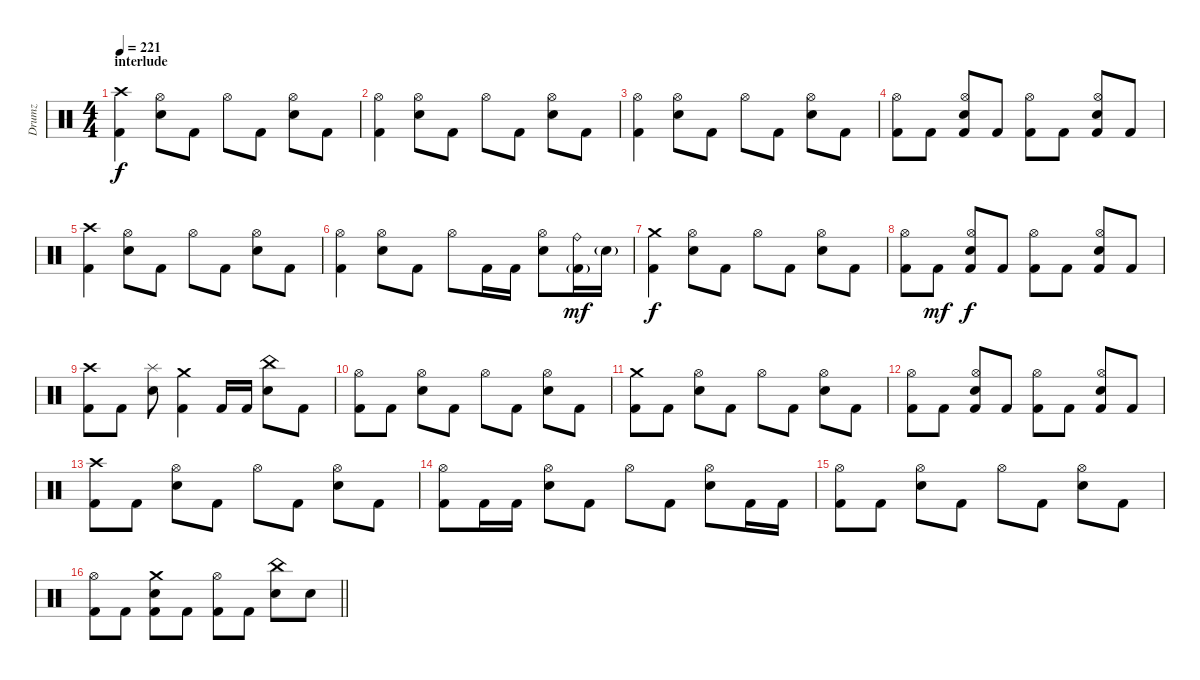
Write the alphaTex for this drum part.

\track ("Drumz" "Drumz") {instrument percussion}
\staff {score}
\articulation defaults
\ts (4 4)
\section ("" "interlude")
\tempo 221
\clef neutral
\ks c
("Crash high (hit)" "Kick (hit) 2").4{dy f} ("Hi-Hat (open)" "Electric Snare (hit)").8 "Kick (hit) 2".8 "Hi-Hat (open)".8 "Kick (hit) 2".8 ("Hi-Hat (open)" "Electric Snare (hit)").8 "Kick (hit) 2".8 |
("Hi-Hat (open)" "Kick (hit) 2").4 ("Hi-Hat (open)" "Electric Snare (hit)").8 "Kick (hit) 2".8 "Hi-Hat (open)".8 "Kick (hit) 2".8 ("Hi-Hat (open)" "Electric Snare (hit)").8 "Kick (hit) 2".8 |
("Hi-Hat (open)" "Kick (hit) 2").4 ("Hi-Hat (open)" "Electric Snare (hit)").8 "Kick (hit) 2".8 "Hi-Hat (open)".8 "Kick (hit) 2".8 ("Hi-Hat (open)" "Electric Snare (hit)").8 "Kick (hit) 2".8 |
("Hi-Hat (open)" "Kick (hit) 2").8 "Kick (hit) 2".8 ("Hi-Hat (open)" "Electric Snare (hit)" "Kick (hit) 2").8 "Kick (hit) 2".8 ("Hi-Hat (open)" "Kick (hit) 2").8 "Kick (hit) 2".8 ("Hi-Hat (open)" "Electric Snare (hit)" "Kick (hit) 2").8 "Kick (hit) 2".8 |
("Crash high (hit)" "Kick (hit) 2").4 ("Hi-Hat (open)" "Electric Snare (hit)").8 "Kick (hit) 2".8 "Hi-Hat (open)".8 "Kick (hit) 2".8 ("Hi-Hat (open)" "Electric Snare (hit)").8 "Kick (hit) 2".8 |
("Hi-Hat (open)" "Kick (hit) 2").4 ("Hi-Hat (open)" "Electric Snare (hit)").8 "Kick (hit) 2".8 "Hi-Hat (open)".8 "Kick (hit) 2".16 "Kick (hit) 2".16 ("Hi-Hat (open)" "Electric Snare (hit)").8 ("Ride (bell)" "Kick (hit) 2"{g}).16{dy mf} "Electric Snare (hit)"{g}.16 |
("Crash medium (hit)" "Kick (hit) 2").4{dy f} ("Hi-Hat (open)" "Electric Snare (hit)").8 "Kick (hit) 2".8 "Hi-Hat (open)".8 "Kick (hit) 2".8 ("Hi-Hat (open)" "Electric Snare (hit)").8 "Kick (hit) 2".8 |
("Hi-Hat (open)" "Kick (hit) 2").8 "Kick (hit) 2".8{dy mf} ("Hi-Hat (open)" "Electric Snare (hit)" "Kick (hit) 2").8{dy f} "Kick (hit) 2".8 ("Hi-Hat (open)" "Kick (hit) 2").8 "Kick (hit) 2".8 ("Hi-Hat (open)" "Electric Snare (hit)" "Kick (hit) 2").8 "Kick (hit) 2".8 |
("Crash high (hit)" "Kick (hit) 2").8 "Kick (hit) 2".8 ("Splash (hit)" "Electric Snare (hit)").8 ("Crash medium (hit)" "Kick (hit) 2").4 "Kick (hit) 2".16 "Kick (hit) 2".16 ("China (hit)" "Electric Snare (hit)").8 "Kick (hit) 2".8 |
("Hi-Hat (open)" "Kick (hit) 2").8 "Kick (hit) 2".8 ("Hi-Hat (open)" "Electric Snare (hit)").8 "Kick (hit) 2".8 "Hi-Hat (open)".8 "Kick (hit) 2".8 ("Hi-Hat (open)" "Electric Snare (hit)").8 "Kick (hit) 2".8 |
("Crash medium (hit)" "Kick (hit) 2").8 "Kick (hit) 2".8 ("Hi-Hat (open)" "Electric Snare (hit)").8 "Kick (hit) 2".8 "Hi-Hat (open)".8 "Kick (hit) 2".8 ("Hi-Hat (open)" "Electric Snare (hit)").8 "Kick (hit) 2".8 |
("Hi-Hat (open)" "Kick (hit) 2").8 "Kick (hit) 2".8 ("Hi-Hat (open)" "Electric Snare (hit)" "Kick (hit) 2").8 "Kick (hit) 2".8 ("Hi-Hat (open)" "Kick (hit) 2").8 "Kick (hit) 2".8 ("Hi-Hat (open)" "Electric Snare (hit)" "Kick (hit) 2").8 "Kick (hit) 2".8 |
("Crash high (hit)" "Kick (hit) 2").8 "Kick (hit) 2".8 ("Hi-Hat (open)" "Electric Snare (hit)").8 "Kick (hit) 2".8 "Hi-Hat (open)".8 "Kick (hit) 2".8 ("Hi-Hat (open)" "Electric Snare (hit)").8 "Kick (hit) 2".8 |
("Hi-Hat (open)" "Kick (hit) 2").8 "Kick (hit) 2".16 "Kick (hit) 2".16 ("Hi-Hat (open)" "Electric Snare (hit)").8 "Kick (hit) 2".8 "Hi-Hat (open)".8 "Kick (hit) 2".8 ("Hi-Hat (open)" "Electric Snare (hit)").8 "Kick (hit) 2".16 "Kick (hit) 2".16 |
("Hi-Hat (open)" "Kick (hit) 2").8 "Kick (hit) 2".8 ("Hi-Hat (open)" "Electric Snare (hit)").8 "Kick (hit) 2".8 "Hi-Hat (open)".8 "Kick (hit) 2".8 ("Hi-Hat (open)" "Electric Snare (hit)").8 "Kick (hit) 2".8 |
\barLineRight lightlight
("Hi-Hat (open)" "Kick (hit) 2").8 "Kick (hit) 2".8 ("Crash medium (hit)" "Electric Snare (hit)" "Kick (hit) 2").8 "Kick (hit) 2".8 ("Hi-Hat (open)" "Kick (hit) 2").8 "Kick (hit) 2".8 ("China (hit)" "Electric Snare (hit)").8 "Electric Snare (hit)".8
